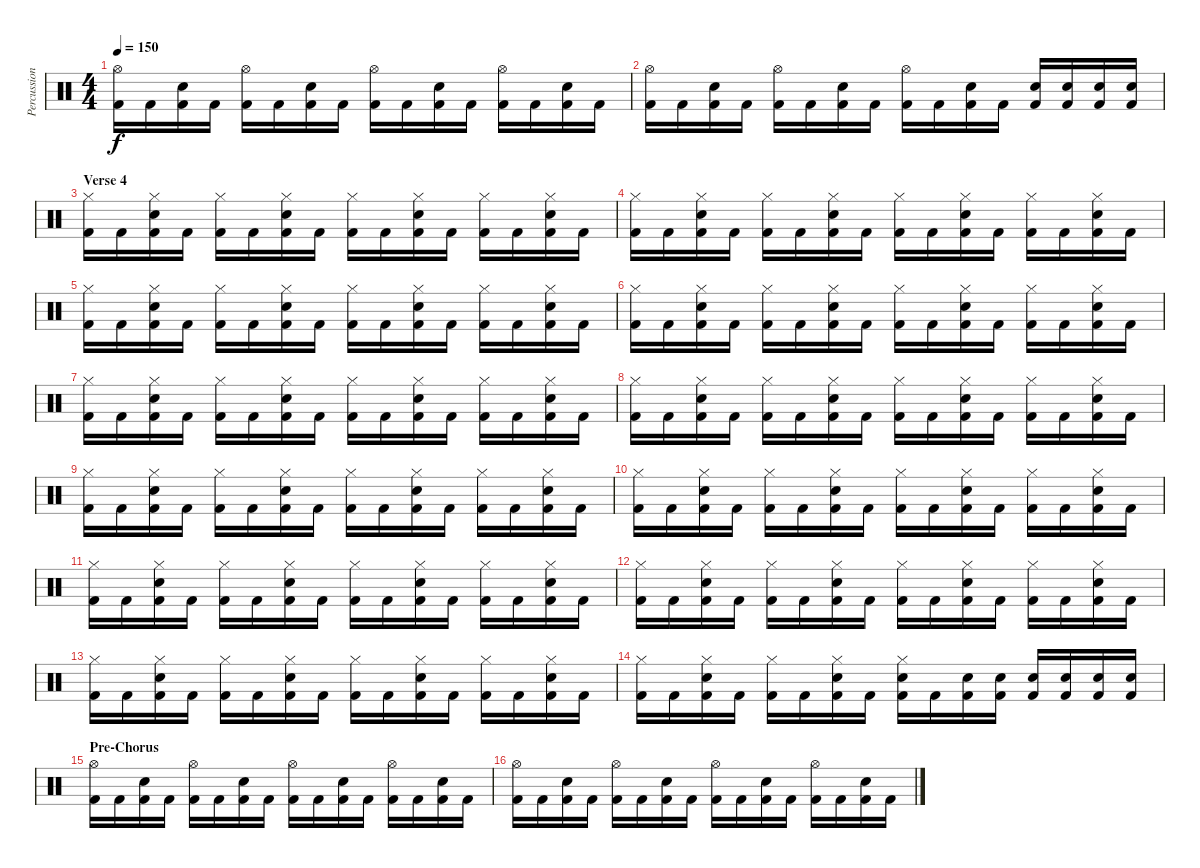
\track ("Percussion" "Percussion") {instrument percussion}
\staff {score}
\articulation defaults
\ts (4 4)
\tempo 150
\clef neutral
\ks c
("Kick (hit) 2" "Hi-Hat (open)").16{dy f} "Kick (hit) 2".16 ("Kick (hit) 2" "Snare (hit) 2").16 "Kick (hit) 2".16 ("Kick (hit) 2" "Hi-Hat (open)").16 "Kick (hit) 2".16 ("Kick (hit) 2" "Snare (hit) 2").16 "Kick (hit) 2".16 ("Kick (hit) 2" "Hi-Hat (open)").16 "Kick (hit) 2".16 ("Kick (hit) 2" "Snare (hit) 2").16 "Kick (hit) 2".16 ("Kick (hit) 2" "Hi-Hat (open)").16 "Kick (hit) 2".16 ("Kick (hit) 2" "Snare (hit) 2").16 "Kick (hit) 2".16 |
("Kick (hit) 2" "Hi-Hat (open)").16 "Kick (hit) 2".16 ("Kick (hit) 2" "Snare (hit) 2").16 "Kick (hit) 2".16 ("Kick (hit) 2" "Hi-Hat (open)").16 "Kick (hit) 2".16 ("Kick (hit) 2" "Snare (hit) 2").16 "Kick (hit) 2".16 ("Kick (hit) 2" "Hi-Hat (open)").16 "Kick (hit) 2".16 ("Kick (hit) 2" "Snare (hit) 2").16 "Kick (hit) 2".16 ("Kick (hit) 2" "Snare (hit) 2").16 ("Kick (hit) 2" "Snare (hit) 2").16 ("Kick (hit) 2" "Snare (hit) 2").16 ("Kick (hit) 2" "Snare (hit) 2").16 |
\section ("" "Verse 4")
("Kick (hit) 2" "Hi-Hat (closed)").16 "Kick (hit) 2".16 ("Kick (hit) 2" "Hi-Hat (closed)" "Snare (hit) 2").16 "Kick (hit) 2".16 ("Kick (hit) 2" "Hi-Hat (closed)").16 "Kick (hit) 2".16 ("Kick (hit) 2" "Hi-Hat (closed)" "Snare (hit) 2").16 "Kick (hit) 2".16 ("Kick (hit) 2" "Hi-Hat (closed)").16 "Kick (hit) 2".16 ("Kick (hit) 2" "Hi-Hat (closed)" "Snare (hit) 2").16 "Kick (hit) 2".16 ("Kick (hit) 2" "Hi-Hat (closed)").16 "Kick (hit) 2".16 ("Kick (hit) 2" "Hi-Hat (closed)" "Snare (hit) 2").16 "Kick (hit) 2".16 |
("Kick (hit) 2" "Hi-Hat (closed)").16 "Kick (hit) 2".16 ("Kick (hit) 2" "Hi-Hat (closed)" "Snare (hit) 2").16 "Kick (hit) 2".16 ("Kick (hit) 2" "Hi-Hat (closed)").16 "Kick (hit) 2".16 ("Kick (hit) 2" "Hi-Hat (closed)" "Snare (hit) 2").16 "Kick (hit) 2".16 ("Kick (hit) 2" "Hi-Hat (closed)").16 "Kick (hit) 2".16 ("Kick (hit) 2" "Hi-Hat (closed)" "Snare (hit) 2").16 "Kick (hit) 2".16 ("Kick (hit) 2" "Hi-Hat (closed)").16 "Kick (hit) 2".16 ("Kick (hit) 2" "Hi-Hat (closed)" "Snare (hit) 2").16 "Kick (hit) 2".16 |
("Kick (hit) 2" "Hi-Hat (closed)").16 "Kick (hit) 2".16 ("Kick (hit) 2" "Hi-Hat (closed)" "Snare (hit) 2").16 "Kick (hit) 2".16 ("Kick (hit) 2" "Hi-Hat (closed)").16 "Kick (hit) 2".16 ("Kick (hit) 2" "Hi-Hat (closed)" "Snare (hit) 2").16 "Kick (hit) 2".16 ("Kick (hit) 2" "Hi-Hat (closed)").16 "Kick (hit) 2".16 ("Kick (hit) 2" "Hi-Hat (closed)" "Snare (hit) 2").16 "Kick (hit) 2".16 ("Kick (hit) 2" "Hi-Hat (closed)").16 "Kick (hit) 2".16 ("Kick (hit) 2" "Hi-Hat (closed)" "Snare (hit) 2").16 "Kick (hit) 2".16 |
("Kick (hit) 2" "Hi-Hat (closed)").16 "Kick (hit) 2".16 ("Kick (hit) 2" "Hi-Hat (closed)" "Snare (hit) 2").16 "Kick (hit) 2".16 ("Kick (hit) 2" "Hi-Hat (closed)").16 "Kick (hit) 2".16 ("Kick (hit) 2" "Hi-Hat (closed)" "Snare (hit) 2").16 "Kick (hit) 2".16 ("Kick (hit) 2" "Hi-Hat (closed)").16 "Kick (hit) 2".16 ("Kick (hit) 2" "Hi-Hat (closed)" "Snare (hit) 2").16 "Kick (hit) 2".16 ("Kick (hit) 2" "Hi-Hat (closed)").16 "Kick (hit) 2".16 ("Kick (hit) 2" "Hi-Hat (closed)" "Snare (hit) 2").16 "Kick (hit) 2".16 |
("Kick (hit) 2" "Hi-Hat (closed)").16 "Kick (hit) 2".16 ("Kick (hit) 2" "Hi-Hat (closed)" "Snare (hit) 2").16 "Kick (hit) 2".16 ("Kick (hit) 2" "Hi-Hat (closed)").16 "Kick (hit) 2".16 ("Kick (hit) 2" "Hi-Hat (closed)" "Snare (hit) 2").16 "Kick (hit) 2".16 ("Kick (hit) 2" "Hi-Hat (closed)").16 "Kick (hit) 2".16 ("Kick (hit) 2" "Hi-Hat (closed)" "Snare (hit) 2").16 "Kick (hit) 2".16 ("Kick (hit) 2" "Hi-Hat (closed)").16 "Kick (hit) 2".16 ("Kick (hit) 2" "Hi-Hat (closed)" "Snare (hit) 2").16 "Kick (hit) 2".16 |
("Kick (hit) 2" "Hi-Hat (closed)").16 "Kick (hit) 2".16 ("Kick (hit) 2" "Hi-Hat (closed)" "Snare (hit) 2").16 "Kick (hit) 2".16 ("Kick (hit) 2" "Hi-Hat (closed)").16 "Kick (hit) 2".16 ("Kick (hit) 2" "Hi-Hat (closed)" "Snare (hit) 2").16 "Kick (hit) 2".16 ("Kick (hit) 2" "Hi-Hat (closed)").16 "Kick (hit) 2".16 ("Kick (hit) 2" "Hi-Hat (closed)" "Snare (hit) 2").16 "Kick (hit) 2".16 ("Kick (hit) 2" "Hi-Hat (closed)").16 "Kick (hit) 2".16 ("Kick (hit) 2" "Hi-Hat (closed)" "Snare (hit) 2").16 "Kick (hit) 2".16 |
("Kick (hit) 2" "Hi-Hat (closed)").16 "Kick (hit) 2".16 ("Kick (hit) 2" "Hi-Hat (closed)" "Snare (hit) 2").16 "Kick (hit) 2".16 ("Kick (hit) 2" "Hi-Hat (closed)").16 "Kick (hit) 2".16 ("Kick (hit) 2" "Hi-Hat (closed)" "Snare (hit) 2").16 "Kick (hit) 2".16 ("Kick (hit) 2" "Hi-Hat (closed)").16 "Kick (hit) 2".16 ("Kick (hit) 2" "Hi-Hat (closed)" "Snare (hit) 2").16 "Kick (hit) 2".16 ("Kick (hit) 2" "Hi-Hat (closed)").16 "Kick (hit) 2".16 ("Kick (hit) 2" "Hi-Hat (closed)" "Snare (hit) 2").16 "Kick (hit) 2".16 |
("Kick (hit) 2" "Hi-Hat (closed)").16 "Kick (hit) 2".16 ("Kick (hit) 2" "Hi-Hat (closed)" "Snare (hit) 2").16 "Kick (hit) 2".16 ("Kick (hit) 2" "Hi-Hat (closed)").16 "Kick (hit) 2".16 ("Kick (hit) 2" "Hi-Hat (closed)" "Snare (hit) 2").16 "Kick (hit) 2".16 ("Kick (hit) 2" "Hi-Hat (closed)").16 "Kick (hit) 2".16 ("Kick (hit) 2" "Hi-Hat (closed)" "Snare (hit) 2").16 "Kick (hit) 2".16 ("Kick (hit) 2" "Hi-Hat (closed)").16 "Kick (hit) 2".16 ("Kick (hit) 2" "Hi-Hat (closed)" "Snare (hit) 2").16 "Kick (hit) 2".16 |
("Kick (hit) 2" "Hi-Hat (closed)").16 "Kick (hit) 2".16 ("Kick (hit) 2" "Hi-Hat (closed)" "Snare (hit) 2").16 "Kick (hit) 2".16 ("Kick (hit) 2" "Hi-Hat (closed)").16 "Kick (hit) 2".16 ("Kick (hit) 2" "Hi-Hat (closed)" "Snare (hit) 2").16 "Kick (hit) 2".16 ("Kick (hit) 2" "Hi-Hat (closed)").16 "Kick (hit) 2".16 ("Kick (hit) 2" "Hi-Hat (closed)" "Snare (hit) 2").16 "Kick (hit) 2".16 ("Kick (hit) 2" "Hi-Hat (closed)").16 "Kick (hit) 2".16 ("Kick (hit) 2" "Hi-Hat (closed)" "Snare (hit) 2").16 "Kick (hit) 2".16 |
("Kick (hit) 2" "Hi-Hat (closed)").16 "Kick (hit) 2".16 ("Kick (hit) 2" "Hi-Hat (closed)" "Snare (hit) 2").16 "Kick (hit) 2".16 ("Kick (hit) 2" "Hi-Hat (closed)").16 "Kick (hit) 2".16 ("Kick (hit) 2" "Hi-Hat (closed)" "Snare (hit) 2").16 "Kick (hit) 2".16 ("Kick (hit) 2" "Hi-Hat (closed)").16 "Kick (hit) 2".16 ("Kick (hit) 2" "Hi-Hat (closed)" "Snare (hit) 2").16 "Kick (hit) 2".16 ("Kick (hit) 2" "Hi-Hat (closed)").16 "Kick (hit) 2".16 ("Kick (hit) 2" "Hi-Hat (closed)" "Snare (hit) 2").16 "Kick (hit) 2".16 |
("Kick (hit) 2" "Hi-Hat (closed)").16 "Kick (hit) 2".16 ("Kick (hit) 2" "Hi-Hat (closed)" "Snare (hit) 2").16 "Kick (hit) 2".16 ("Kick (hit) 2" "Hi-Hat (closed)").16 "Kick (hit) 2".16 ("Kick (hit) 2" "Hi-Hat (closed)" "Snare (hit) 2").16 "Kick (hit) 2".16 ("Kick (hit) 2" "Hi-Hat (closed)").16 "Kick (hit) 2".16 ("Kick (hit) 2" "Hi-Hat (closed)" "Snare (hit) 2").16 "Kick (hit) 2".16 ("Kick (hit) 2" "Hi-Hat (closed)").16 "Kick (hit) 2".16 ("Kick (hit) 2" "Hi-Hat (closed)" "Snare (hit) 2").16 "Kick (hit) 2".16 |
("Kick (hit) 2" "Hi-Hat (closed)").16 "Kick (hit) 2".16 ("Kick (hit) 2" "Hi-Hat (closed)" "Snare (hit) 2").16 "Kick (hit) 2".16 ("Kick (hit) 2" "Hi-Hat (closed)").16 "Kick (hit) 2".16 ("Kick (hit) 2" "Hi-Hat (closed)" "Snare (hit) 2").16 "Kick (hit) 2".16 ("Kick (hit) 2" "Hi-Hat (closed)" "Snare (hit) 2").16 "Kick (hit) 2".16 ("Kick (hit) 2" "Snare (hit) 2").16 ("Kick (hit) 2" "Snare (hit) 2").16 ("Kick (hit) 2" "Snare (hit) 2").16 ("Kick (hit) 2" "Snare (hit) 2").16 ("Kick (hit) 2" "Snare (hit) 2").16 ("Kick (hit) 2" "Snare (hit) 2").16 |
\section ("" "Pre-Chorus")
("Kick (hit) 2" "Hi-Hat (open)").16 "Kick (hit) 2".16 ("Kick (hit) 2" "Snare (hit) 2").16 "Kick (hit) 2".16 ("Kick (hit) 2" "Hi-Hat (open)").16 "Kick (hit) 2".16 ("Kick (hit) 2" "Snare (hit) 2").16 "Kick (hit) 2".16 ("Kick (hit) 2" "Hi-Hat (open)").16 "Kick (hit) 2".16 ("Kick (hit) 2" "Snare (hit) 2").16 "Kick (hit) 2".16 ("Kick (hit) 2" "Hi-Hat (open)").16 "Kick (hit) 2".16 ("Kick (hit) 2" "Snare (hit) 2").16 "Kick (hit) 2".16 |
("Kick (hit) 2" "Hi-Hat (open)").16 "Kick (hit) 2".16 ("Kick (hit) 2" "Snare (hit) 2").16 "Kick (hit) 2".16 ("Kick (hit) 2" "Hi-Hat (open)").16 "Kick (hit) 2".16 ("Kick (hit) 2" "Snare (hit) 2").16 "Kick (hit) 2".16 ("Kick (hit) 2" "Hi-Hat (open)").16 "Kick (hit) 2".16 ("Kick (hit) 2" "Snare (hit) 2").16 "Kick (hit) 2".16 ("Kick (hit) 2" "Hi-Hat (open)").16 "Kick (hit) 2".16 ("Kick (hit) 2" "Snare (hit) 2").16 "Kick (hit) 2".16
